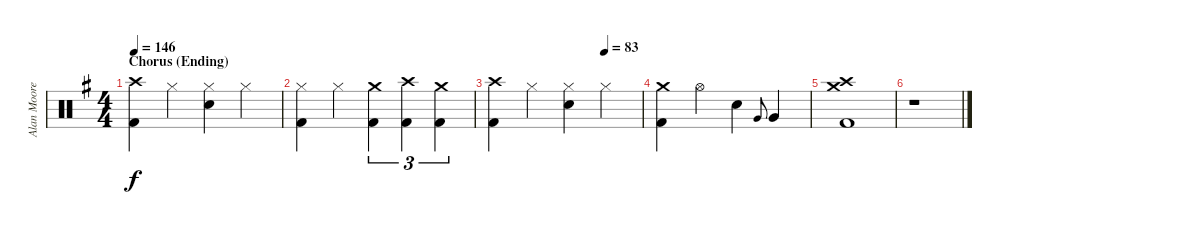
\track ("Alan Moore" "Alan Moore") {instrument percussion}
\staff {score}
\articulation defaults
\ts (4 4)
\section ("" "Chorus (Ending)")
\tempo 146
\clef neutral
\ks eminor
("Crash high (hit)" "Kick (hit) 2").4{dy f} "Hi-Hat (closed)".4 ("Hi-Hat (closed)" "Electric Snare (hit)").4 "Hi-Hat (closed)".4 |
("Hi-Hat (closed)" "Kick (hit) 2").4 "Hi-Hat (closed)".4 ("Crash medium (hit)" "Kick (hit) 2").4{tu (3 2)} ("Crash high (hit)" "Kick (hit) 2").4{tu (3 2)} ("Crash medium (hit)" "Kick (hit) 2").4{tu (3 2)} |
\tempo (83 0.75)
("Crash high (hit)" "Kick (hit) 2").4 "Hi-Hat (closed)".4 ("Hi-Hat (closed)" "Electric Snare (hit)").4 "Hi-Hat (closed)".4 |
("Crash medium (hit)" "Kick (hit) 2").4 "Hi-Hat (open)".4 "Electric Snare (hit)".4 "Very Low Tom (hit)".8{gr onbeat} "Very Low Tom (hit)".4 |
("Crash high (hit)" "Crash medium (hit)" "Kick (hit) 2").1 |
r.1
